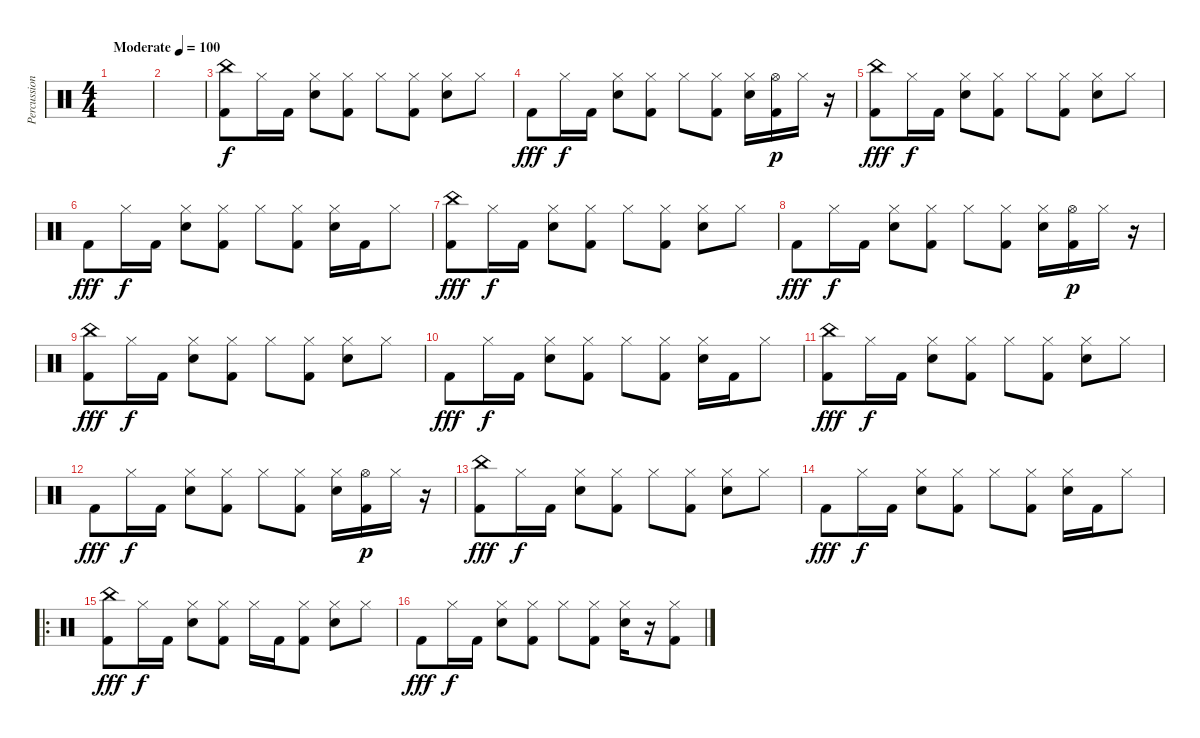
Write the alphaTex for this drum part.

\track ("Percussion" "Percussion") {instrument percussion}
\staff {score}
\articulation defaults
\ts (4 4)
\tempo (100 "Moderate")
\clef neutral
\ks c
|
|
("China (hit)" "Kick (hit) 2").8 "Hi-Hat (closed)".16{dy f} "Kick (hit) 2".16 ("Hi-Hat (closed)" "Snare (hit) 2").8 ("Hi-Hat (closed)" "Kick (hit) 2").8 "Hi-Hat (closed)".8 ("Hi-Hat (closed)" "Kick (hit) 2").8 ("Hi-Hat (closed)" "Snare (hit) 2").8 "Hi-Hat (closed)".8 |
"Kick (hit) 2".8{dy fff} "Hi-Hat (closed)".16{dy f} "Kick (hit) 2".16 ("Hi-Hat (closed)" "Snare (hit) 2").8 ("Hi-Hat (closed)" "Kick (hit) 2").8 "Hi-Hat (closed)".8 ("Hi-Hat (closed)" "Kick (hit) 2").8 ("Hi-Hat (closed)" "Snare (hit) 2").16 ("Hi-Hat (open)" "Kick (hit) 2").16{dy p} "Hi-Hat (closed)".16 r.16 |
("China (hit)" "Kick (hit) 2").8{dy fff} "Hi-Hat (closed)".16{dy f} "Kick (hit) 2".16 ("Hi-Hat (closed)" "Snare (hit) 2").8 ("Hi-Hat (closed)" "Kick (hit) 2").8 "Hi-Hat (closed)".8 ("Hi-Hat (closed)" "Kick (hit) 2").8 ("Hi-Hat (closed)" "Snare (hit) 2").8 "Hi-Hat (closed)".8 |
"Kick (hit) 2".8{dy fff} "Hi-Hat (closed)".16{dy f} "Kick (hit) 2".16 ("Hi-Hat (closed)" "Snare (hit) 2").8 ("Hi-Hat (closed)" "Kick (hit) 2").8 "Hi-Hat (closed)".8 ("Hi-Hat (closed)" "Kick (hit) 2").8 ("Hi-Hat (closed)" "Snare (hit) 2").16 "Kick (hit) 2".16 "Hi-Hat (closed)".8 |
("China (hit)" "Kick (hit) 2").8{dy fff} "Hi-Hat (closed)".16{dy f} "Kick (hit) 2".16 ("Hi-Hat (closed)" "Snare (hit) 2").8 ("Hi-Hat (closed)" "Kick (hit) 2").8 "Hi-Hat (closed)".8 ("Hi-Hat (closed)" "Kick (hit) 2").8 ("Hi-Hat (closed)" "Snare (hit) 2").8 "Hi-Hat (closed)".8 |
"Kick (hit) 2".8{dy fff} "Hi-Hat (closed)".16{dy f} "Kick (hit) 2".16 ("Hi-Hat (closed)" "Snare (hit) 2").8 ("Hi-Hat (closed)" "Kick (hit) 2").8 "Hi-Hat (closed)".8 ("Hi-Hat (closed)" "Kick (hit) 2").8 ("Hi-Hat (closed)" "Snare (hit) 2").16 ("Hi-Hat (open)" "Kick (hit) 2").16{dy p} "Hi-Hat (closed)".16 r.16 |
("China (hit)" "Kick (hit) 2").8{dy fff} "Hi-Hat (closed)".16{dy f} "Kick (hit) 2".16 ("Hi-Hat (closed)" "Snare (hit) 2").8 ("Hi-Hat (closed)" "Kick (hit) 2").8 "Hi-Hat (closed)".8 ("Hi-Hat (closed)" "Kick (hit) 2").8 ("Hi-Hat (closed)" "Snare (hit) 2").8 "Hi-Hat (closed)".8 |
"Kick (hit) 2".8{dy fff} "Hi-Hat (closed)".16{dy f} "Kick (hit) 2".16 ("Hi-Hat (closed)" "Snare (hit) 2").8 ("Hi-Hat (closed)" "Kick (hit) 2").8 "Hi-Hat (closed)".8 ("Hi-Hat (closed)" "Kick (hit) 2").8 ("Hi-Hat (closed)" "Snare (hit) 2").16 "Kick (hit) 2".16 "Hi-Hat (closed)".8 |
("China (hit)" "Kick (hit) 2").8{dy fff} "Hi-Hat (closed)".16{dy f} "Kick (hit) 2".16 ("Hi-Hat (closed)" "Snare (hit) 2").8 ("Hi-Hat (closed)" "Kick (hit) 2").8 "Hi-Hat (closed)".8 ("Hi-Hat (closed)" "Kick (hit) 2").8 ("Hi-Hat (closed)" "Snare (hit) 2").8 "Hi-Hat (closed)".8 |
"Kick (hit) 2".8{dy fff} "Hi-Hat (closed)".16{dy f} "Kick (hit) 2".16 ("Hi-Hat (closed)" "Snare (hit) 2").8 ("Hi-Hat (closed)" "Kick (hit) 2").8 "Hi-Hat (closed)".8 ("Hi-Hat (closed)" "Kick (hit) 2").8 ("Hi-Hat (closed)" "Snare (hit) 2").16 ("Hi-Hat (open)" "Kick (hit) 2").16{dy p} "Hi-Hat (closed)".16 r.16 |
("China (hit)" "Kick (hit) 2").8{dy fff} "Hi-Hat (closed)".16{dy f} "Kick (hit) 2".16 ("Hi-Hat (closed)" "Snare (hit) 2").8 ("Hi-Hat (closed)" "Kick (hit) 2").8 "Hi-Hat (closed)".8 ("Hi-Hat (closed)" "Kick (hit) 2").8 ("Hi-Hat (closed)" "Snare (hit) 2").8 "Hi-Hat (closed)".8 |
"Kick (hit) 2".8{dy fff} "Hi-Hat (closed)".16{dy f} "Kick (hit) 2".16 ("Hi-Hat (closed)" "Snare (hit) 2").8 ("Hi-Hat (closed)" "Kick (hit) 2").8 "Hi-Hat (closed)".8 ("Hi-Hat (closed)" "Kick (hit) 2").8 ("Hi-Hat (closed)" "Snare (hit) 2").16 "Kick (hit) 2".16 "Hi-Hat (closed)".8 |
\ro
("China (hit)" "Kick (hit) 2").8{dy fff} "Hi-Hat (closed)".16{dy f} "Kick (hit) 2".16 ("Hi-Hat (closed)" "Snare (hit) 2").8 ("Hi-Hat (closed)" "Kick (hit) 2").8 "Hi-Hat (closed)".16 "Kick (hit) 2".16 ("Hi-Hat (closed)" "Kick (hit) 2").8 ("Hi-Hat (closed)" "Snare (hit) 2").8 "Hi-Hat (closed)".8 |
"Kick (hit) 2".8{dy fff} "Hi-Hat (closed)".16{dy f} "Kick (hit) 2".16 ("Hi-Hat (closed)" "Snare (hit) 2").8 ("Hi-Hat (closed)" "Kick (hit) 2").8 "Hi-Hat (closed)".8 ("Hi-Hat (closed)" "Kick (hit) 2").8 ("Hi-Hat (closed)" "Snare (hit) 2").16 r.16 ("Hi-Hat (closed)" "Kick (hit) 2").8
